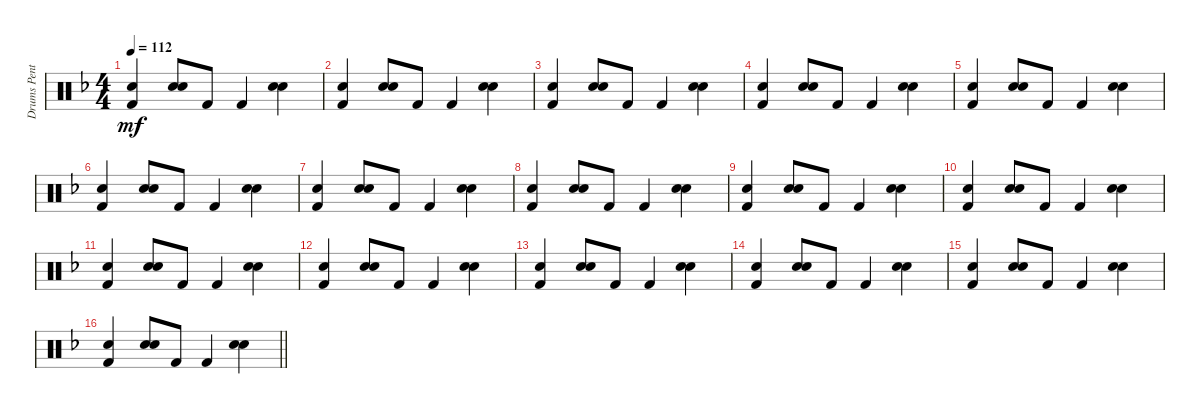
\track ("Drums Pentti Glan" "Drums Pent") {mute instrument percussion}
\staff {score}
\articulation defaults
\ts (4 4)
\tempo 112
\clef neutral
\ks f
("Hand Clap (hit)" "Kick (hit) 2").4{dy mf} ("Electric Snare (hit)" "Snare (hit) 2").8 "Kick (hit) 2".8 "Kick (hit) 2".4 ("Electric Snare (hit)" "Snare (hit) 2").4 |
("Hand Clap (hit)" "Kick (hit) 2").4 ("Electric Snare (hit)" "Snare (hit) 2").8 "Kick (hit) 2".8 "Kick (hit) 2".4 ("Electric Snare (hit)" "Snare (hit) 2").4 |
("Hand Clap (hit)" "Kick (hit) 2").4 ("Electric Snare (hit)" "Snare (hit) 2").8 "Kick (hit) 2".8 "Kick (hit) 2".4 ("Electric Snare (hit)" "Snare (hit) 2").4 |
("Hand Clap (hit)" "Kick (hit) 2").4 ("Electric Snare (hit)" "Snare (hit) 2").8 "Kick (hit) 2".8 "Kick (hit) 2".4 ("Electric Snare (hit)" "Snare (hit) 2").4 |
("Hand Clap (hit)" "Kick (hit) 2").4 ("Electric Snare (hit)" "Snare (hit) 2").8 "Kick (hit) 2".8 "Kick (hit) 2".4 ("Electric Snare (hit)" "Snare (hit) 2").4 |
("Hand Clap (hit)" "Kick (hit) 2").4 ("Electric Snare (hit)" "Snare (hit) 2").8 "Kick (hit) 2".8 "Kick (hit) 2".4 ("Electric Snare (hit)" "Snare (hit) 2").4 |
("Hand Clap (hit)" "Kick (hit) 2").4 ("Electric Snare (hit)" "Snare (hit) 2").8 "Kick (hit) 2".8 "Kick (hit) 2".4 ("Electric Snare (hit)" "Snare (hit) 2").4 |
("Hand Clap (hit)" "Kick (hit) 2").4 ("Electric Snare (hit)" "Snare (hit) 2").8 "Kick (hit) 2".8 "Kick (hit) 2".4 ("Electric Snare (hit)" "Snare (hit) 2").4 |
("Hand Clap (hit)" "Kick (hit) 2").4 ("Electric Snare (hit)" "Snare (hit) 2").8 "Kick (hit) 2".8 "Kick (hit) 2".4 ("Electric Snare (hit)" "Snare (hit) 2").4 |
("Hand Clap (hit)" "Kick (hit) 2").4 ("Electric Snare (hit)" "Snare (hit) 2").8 "Kick (hit) 2".8 "Kick (hit) 2".4 ("Electric Snare (hit)" "Snare (hit) 2").4 |
("Hand Clap (hit)" "Kick (hit) 2").4 ("Electric Snare (hit)" "Snare (hit) 2").8 "Kick (hit) 2".8 "Kick (hit) 2".4 ("Electric Snare (hit)" "Snare (hit) 2").4 |
("Hand Clap (hit)" "Kick (hit) 2").4 ("Electric Snare (hit)" "Snare (hit) 2").8 "Kick (hit) 2".8 "Kick (hit) 2".4 ("Electric Snare (hit)" "Snare (hit) 2").4 |
("Hand Clap (hit)" "Kick (hit) 2").4 ("Electric Snare (hit)" "Snare (hit) 2").8 "Kick (hit) 2".8 "Kick (hit) 2".4 ("Electric Snare (hit)" "Snare (hit) 2").4 |
("Hand Clap (hit)" "Kick (hit) 2").4 ("Electric Snare (hit)" "Snare (hit) 2").8 "Kick (hit) 2".8 "Kick (hit) 2".4 ("Electric Snare (hit)" "Snare (hit) 2").4 |
("Hand Clap (hit)" "Kick (hit) 2").4 ("Electric Snare (hit)" "Snare (hit) 2").8 "Kick (hit) 2".8 "Kick (hit) 2".4 ("Electric Snare (hit)" "Snare (hit) 2").4 |
\barLineRight lightlight
("Hand Clap (hit)" "Kick (hit) 2").4 ("Electric Snare (hit)" "Snare (hit) 2").8 "Kick (hit) 2".8 "Kick (hit) 2".4 ("Electric Snare (hit)" "Snare (hit) 2").4
